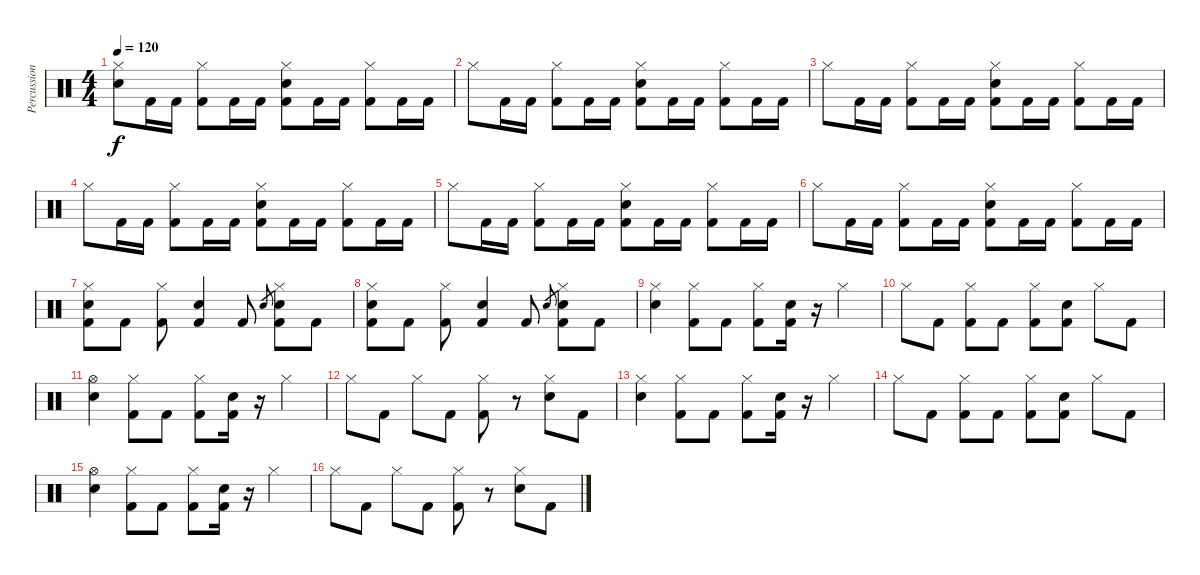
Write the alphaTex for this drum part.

\track ("Percussion" "Percussion") {instrument percussion}
\staff {score}
\articulation defaults
\ts (4 4)
\tempo 120
\clef neutral
\ks c
("Hi-Hat (closed)" "Snare (hit) 2").8{dy f} "Kick (hit) 2".16 "Kick (hit) 2".16 ("Hi-Hat (closed)" "Kick (hit) 2").8 "Kick (hit) 2".16 "Kick (hit) 2".16 ("Hi-Hat (closed)" "Snare (hit) 2" "Kick (hit) 2").8 "Kick (hit) 2".16 "Kick (hit) 2".16 ("Hi-Hat (closed)" "Kick (hit) 2").8 "Kick (hit) 2".16 "Kick (hit) 2".16 |
"Hi-Hat (closed)".8 "Kick (hit) 2".16 "Kick (hit) 2".16 ("Hi-Hat (closed)" "Kick (hit) 2").8 "Kick (hit) 2".16 "Kick (hit) 2".16 ("Hi-Hat (closed)" "Snare (hit) 2" "Kick (hit) 2").8 "Kick (hit) 2".16 "Kick (hit) 2".16 ("Hi-Hat (closed)" "Kick (hit) 2").8 "Kick (hit) 2".16 "Kick (hit) 2".16 |
"Hi-Hat (closed)".8 "Kick (hit) 2".16 "Kick (hit) 2".16 ("Hi-Hat (closed)" "Kick (hit) 2").8 "Kick (hit) 2".16 "Kick (hit) 2".16 ("Hi-Hat (closed)" "Snare (hit) 2" "Kick (hit) 2").8 "Kick (hit) 2".16 "Kick (hit) 2".16 ("Hi-Hat (closed)" "Kick (hit) 2").8 "Kick (hit) 2".16 "Kick (hit) 2".16 |
"Hi-Hat (closed)".8 "Kick (hit) 2".16 "Kick (hit) 2".16 ("Hi-Hat (closed)" "Kick (hit) 2").8 "Kick (hit) 2".16 "Kick (hit) 2".16 ("Hi-Hat (closed)" "Snare (hit) 2" "Kick (hit) 2").8 "Kick (hit) 2".16 "Kick (hit) 2".16 ("Hi-Hat (closed)" "Kick (hit) 2").8 "Kick (hit) 2".16 "Kick (hit) 2".16 |
"Hi-Hat (closed)".8 "Kick (hit) 2".16 "Kick (hit) 2".16 ("Hi-Hat (closed)" "Kick (hit) 2").8 "Kick (hit) 2".16 "Kick (hit) 2".16 ("Hi-Hat (closed)" "Snare (hit) 2" "Kick (hit) 2").8 "Kick (hit) 2".16 "Kick (hit) 2".16 ("Hi-Hat (closed)" "Kick (hit) 2").8 "Kick (hit) 2".16 "Kick (hit) 2".16 |
"Hi-Hat (closed)".8 "Kick (hit) 2".16 "Kick (hit) 2".16 ("Hi-Hat (closed)" "Kick (hit) 2").8 "Kick (hit) 2".16 "Kick (hit) 2".16 ("Hi-Hat (closed)" "Snare (hit) 2" "Kick (hit) 2").8 "Kick (hit) 2".16 "Kick (hit) 2".16 ("Hi-Hat (closed)" "Kick (hit) 2").8 "Kick (hit) 2".16 "Kick (hit) 2".16 |
("Hi-Hat (closed)" "Snare (hit) 2" "Kick (hit) 2").8 "Kick (hit) 2".8 ("Hi-Hat (closed)" "Kick (hit) 2").8 ("Snare (hit) 2" "Kick (hit) 2").4 "Kick (hit) 2".8 "Snare (hit) 2".8{gr} ("Hi-Hat (closed)" "Snare (hit) 2" "Kick (hit) 2").8 "Kick (hit) 2".8 |
("Hi-Hat (closed)" "Snare (hit) 2" "Kick (hit) 2").8 "Kick (hit) 2".8 ("Hi-Hat (closed)" "Kick (hit) 2").8 ("Snare (hit) 2" "Kick (hit) 2").4 "Kick (hit) 2".8 "Snare (hit) 2".8{gr} ("Hi-Hat (closed)" "Snare (hit) 2" "Kick (hit) 2").8 "Kick (hit) 2".8 |
("Hi-Hat (closed)" "Snare (hit) 2").4 ("Hi-Hat (closed)" "Kick (hit) 2").8 "Kick (hit) 2".8 ("Hi-Hat (closed)" "Kick (hit) 2").8 ("Snare (hit) 2" "Kick (hit) 2").16 r.16 "Hi-Hat (closed)".4 |
"Hi-Hat (closed)".8 "Kick (hit) 2".8 ("Hi-Hat (closed)" "Kick (hit) 2").8 "Kick (hit) 2".8 ("Hi-Hat (closed)" "Kick (hit) 2").8 ("Snare (hit) 2" "Kick (hit) 2").8 "Hi-Hat (closed)".8 "Kick (hit) 2".8 |
("Hi-Hat (open)" "Snare (hit) 2").4 ("Hi-Hat (closed)" "Kick (hit) 2").8 "Kick (hit) 2".8 ("Hi-Hat (closed)" "Kick (hit) 2").8 ("Snare (hit) 2" "Kick (hit) 2").16 r.16 "Hi-Hat (closed)".4 |
"Hi-Hat (closed)".8 "Kick (hit) 2".8 "Hi-Hat (closed)".8 "Kick (hit) 2".8 ("Hi-Hat (closed)" "Kick (hit) 2").8 r.8 ("Hi-Hat (closed)" "Snare (hit) 2").8 "Kick (hit) 2".8 |
("Hi-Hat (closed)" "Snare (hit) 2").4 ("Hi-Hat (closed)" "Kick (hit) 2").8 "Kick (hit) 2".8 ("Hi-Hat (closed)" "Kick (hit) 2").8 ("Snare (hit) 2" "Kick (hit) 2").16 r.16 "Hi-Hat (closed)".4 |
"Hi-Hat (closed)".8 "Kick (hit) 2".8 ("Hi-Hat (closed)" "Kick (hit) 2").8 "Kick (hit) 2".8 ("Hi-Hat (closed)" "Kick (hit) 2").8 ("Snare (hit) 2" "Kick (hit) 2").8 "Hi-Hat (closed)".8 "Kick (hit) 2".8 |
("Hi-Hat (open)" "Snare (hit) 2").4 ("Hi-Hat (closed)" "Kick (hit) 2").8 "Kick (hit) 2".8 ("Hi-Hat (closed)" "Kick (hit) 2").8 ("Snare (hit) 2" "Kick (hit) 2").16 r.16 "Hi-Hat (closed)".4 |
"Hi-Hat (closed)".8 "Kick (hit) 2".8 "Hi-Hat (closed)".8 "Kick (hit) 2".8 ("Hi-Hat (closed)" "Kick (hit) 2").8 r.8 ("Hi-Hat (closed)" "Snare (hit) 2").8 "Kick (hit) 2".8
